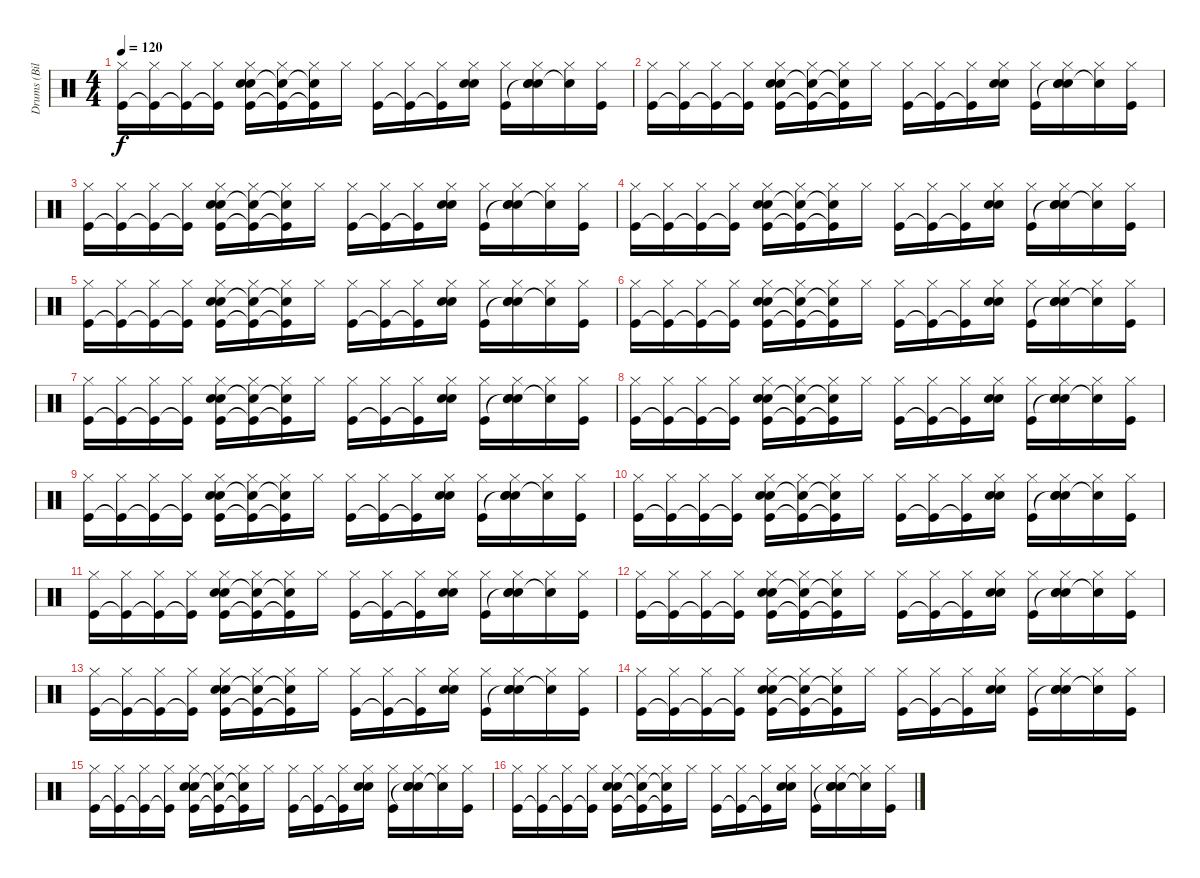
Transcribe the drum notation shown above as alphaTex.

\track ("Drums (Bilerman)" "Drums (Bil") {instrument percussion}
\staff {score}
\articulation defaults
\ts (4 4)
\tempo 120
\clef neutral
\ks c
("Kick (hit)" "Hi-Hat (closed)").16{dy f} ("Kick (hit)"{t} "Hi-Hat (closed)").16 ("Kick (hit)"{t} "Hi-Hat (closed)").16 ("Kick (hit)"{t} "Hi-Hat (closed)").16 ("Kick (hit)" "Snare (hit) 2" "Snare (hit) 2" "Hi-Hat (closed)").16 ("Kick (hit)"{t} "Snare (hit) 2"{t} "Hi-Hat (closed)").16 ("Kick (hit)"{t} "Snare (hit) 2"{t} "Hi-Hat (closed)").16 "Hi-Hat (closed)".16 ("Kick (hit)" "Hi-Hat (closed)").16 ("Kick (hit)"{t} "Hi-Hat (closed)").16 ("Kick (hit)"{t} "Hi-Hat (closed)").16 ("Snare (hit) 2" "Snare (hit) 2" "Hi-Hat (closed)").16 ("Kick (hit)" "Hi-Hat (closed)").16 ("Snare (hit)"{t} "Snare (hit) 2" "Snare (hit) 2" "Hi-Hat (closed)").16 ("Snare (hit) 2"{t} "Hi-Hat (closed)").16 ("Kick (hit)" "Hi-Hat (closed)").16 |
("Kick (hit)" "Hi-Hat (closed)").16 ("Kick (hit)"{t} "Hi-Hat (closed)").16 ("Kick (hit)"{t} "Hi-Hat (closed)").16 ("Kick (hit)"{t} "Hi-Hat (closed)").16 ("Kick (hit)" "Snare (hit) 2" "Snare (hit) 2" "Hi-Hat (closed)").16 ("Kick (hit)"{t} "Snare (hit) 2"{t} "Hi-Hat (closed)").16 ("Kick (hit)"{t} "Snare (hit) 2"{t} "Hi-Hat (closed)").16 "Hi-Hat (closed)".16 ("Kick (hit)" "Hi-Hat (closed)").16 ("Kick (hit)"{t} "Hi-Hat (closed)").16 ("Kick (hit)"{t} "Hi-Hat (closed)").16 ("Snare (hit) 2" "Snare (hit) 2" "Hi-Hat (closed)").16 ("Kick (hit)" "Hi-Hat (closed)").16 ("Snare (hit)"{t} "Snare (hit) 2" "Snare (hit) 2" "Hi-Hat (closed)").16 ("Snare (hit) 2"{t} "Hi-Hat (closed)").16 ("Kick (hit)" "Hi-Hat (closed)").16 |
("Kick (hit)" "Hi-Hat (closed)").16 ("Kick (hit)"{t} "Hi-Hat (closed)").16 ("Kick (hit)"{t} "Hi-Hat (closed)").16 ("Kick (hit)"{t} "Hi-Hat (closed)").16 ("Kick (hit)" "Snare (hit) 2" "Snare (hit) 2" "Hi-Hat (closed)").16 ("Kick (hit)"{t} "Snare (hit) 2"{t} "Hi-Hat (closed)").16 ("Kick (hit)"{t} "Snare (hit) 2"{t} "Hi-Hat (closed)").16 "Hi-Hat (closed)".16 ("Kick (hit)" "Hi-Hat (closed)").16 ("Kick (hit)"{t} "Hi-Hat (closed)").16 ("Kick (hit)"{t} "Hi-Hat (closed)").16 ("Snare (hit) 2" "Snare (hit) 2" "Hi-Hat (closed)").16 ("Kick (hit)" "Hi-Hat (closed)").16 ("Snare (hit)"{t} "Snare (hit) 2" "Snare (hit) 2" "Hi-Hat (closed)").16 ("Snare (hit) 2"{t} "Hi-Hat (closed)").16 ("Kick (hit)" "Hi-Hat (closed)").16 |
("Kick (hit)" "Hi-Hat (closed)").16 ("Kick (hit)"{t} "Hi-Hat (closed)").16 ("Kick (hit)"{t} "Hi-Hat (closed)").16 ("Kick (hit)"{t} "Hi-Hat (closed)").16 ("Kick (hit)" "Snare (hit) 2" "Snare (hit) 2" "Hi-Hat (closed)").16 ("Kick (hit)"{t} "Snare (hit) 2"{t} "Hi-Hat (closed)").16 ("Kick (hit)"{t} "Snare (hit) 2"{t} "Hi-Hat (closed)").16 "Hi-Hat (closed)".16 ("Kick (hit)" "Hi-Hat (closed)").16 ("Kick (hit)"{t} "Hi-Hat (closed)").16 ("Kick (hit)"{t} "Hi-Hat (closed)").16 ("Snare (hit) 2" "Snare (hit) 2" "Hi-Hat (closed)").16 ("Kick (hit)" "Hi-Hat (closed)").16 ("Snare (hit)"{t} "Snare (hit) 2" "Snare (hit) 2" "Hi-Hat (closed)").16 ("Snare (hit) 2"{t} "Hi-Hat (closed)").16 ("Kick (hit)" "Hi-Hat (closed)").16 |
("Kick (hit)" "Hi-Hat (closed)").16 ("Kick (hit)"{t} "Hi-Hat (closed)").16 ("Kick (hit)"{t} "Hi-Hat (closed)").16 ("Kick (hit)"{t} "Hi-Hat (closed)").16 ("Kick (hit)" "Snare (hit) 2" "Snare (hit) 2" "Hi-Hat (closed)").16 ("Kick (hit)"{t} "Snare (hit) 2"{t} "Hi-Hat (closed)").16 ("Kick (hit)"{t} "Snare (hit) 2"{t} "Hi-Hat (closed)").16 "Hi-Hat (closed)".16 ("Kick (hit)" "Hi-Hat (closed)").16 ("Kick (hit)"{t} "Hi-Hat (closed)").16 ("Kick (hit)"{t} "Hi-Hat (closed)").16 ("Snare (hit) 2" "Snare (hit) 2" "Hi-Hat (closed)").16 ("Kick (hit)" "Hi-Hat (closed)").16 ("Snare (hit)"{t} "Snare (hit) 2" "Snare (hit) 2" "Hi-Hat (closed)").16 ("Snare (hit) 2"{t} "Hi-Hat (closed)").16 ("Kick (hit)" "Hi-Hat (closed)").16 |
("Kick (hit)" "Hi-Hat (closed)").16 ("Kick (hit)"{t} "Hi-Hat (closed)").16 ("Kick (hit)"{t} "Hi-Hat (closed)").16 ("Kick (hit)"{t} "Hi-Hat (closed)").16 ("Kick (hit)" "Snare (hit) 2" "Snare (hit) 2" "Hi-Hat (closed)").16 ("Kick (hit)"{t} "Snare (hit) 2"{t} "Hi-Hat (closed)").16 ("Kick (hit)"{t} "Snare (hit) 2"{t} "Hi-Hat (closed)").16 "Hi-Hat (closed)".16 ("Kick (hit)" "Hi-Hat (closed)").16 ("Kick (hit)"{t} "Hi-Hat (closed)").16 ("Kick (hit)"{t} "Hi-Hat (closed)").16 ("Snare (hit) 2" "Snare (hit) 2" "Hi-Hat (closed)").16 ("Kick (hit)" "Hi-Hat (closed)").16 ("Snare (hit)"{t} "Snare (hit) 2" "Snare (hit) 2" "Hi-Hat (closed)").16 ("Snare (hit) 2"{t} "Hi-Hat (closed)").16 ("Kick (hit)" "Hi-Hat (closed)").16 |
("Kick (hit)" "Hi-Hat (closed)").16 ("Kick (hit)"{t} "Hi-Hat (closed)").16 ("Kick (hit)"{t} "Hi-Hat (closed)").16 ("Kick (hit)"{t} "Hi-Hat (closed)").16 ("Kick (hit)" "Snare (hit) 2" "Snare (hit) 2" "Hi-Hat (closed)").16 ("Kick (hit)"{t} "Snare (hit) 2"{t} "Hi-Hat (closed)").16 ("Kick (hit)"{t} "Snare (hit) 2"{t} "Hi-Hat (closed)").16 "Hi-Hat (closed)".16 ("Kick (hit)" "Hi-Hat (closed)").16 ("Kick (hit)"{t} "Hi-Hat (closed)").16 ("Kick (hit)"{t} "Hi-Hat (closed)").16 ("Snare (hit) 2" "Snare (hit) 2" "Hi-Hat (closed)").16 ("Kick (hit)" "Hi-Hat (closed)").16 ("Snare (hit)"{t} "Snare (hit) 2" "Snare (hit) 2" "Hi-Hat (closed)").16 ("Snare (hit) 2"{t} "Hi-Hat (closed)").16 ("Kick (hit)" "Hi-Hat (closed)").16 |
("Kick (hit)" "Hi-Hat (closed)").16 ("Kick (hit)"{t} "Hi-Hat (closed)").16 ("Kick (hit)"{t} "Hi-Hat (closed)").16 ("Kick (hit)"{t} "Hi-Hat (closed)").16 ("Kick (hit)" "Snare (hit) 2" "Snare (hit) 2" "Hi-Hat (closed)").16 ("Kick (hit)"{t} "Snare (hit) 2"{t} "Hi-Hat (closed)").16 ("Kick (hit)"{t} "Snare (hit) 2"{t} "Hi-Hat (closed)").16 "Hi-Hat (closed)".16 ("Kick (hit)" "Hi-Hat (closed)").16 ("Kick (hit)"{t} "Hi-Hat (closed)").16 ("Kick (hit)"{t} "Hi-Hat (closed)").16 ("Snare (hit) 2" "Snare (hit) 2" "Hi-Hat (closed)").16 ("Kick (hit)" "Hi-Hat (closed)").16 ("Snare (hit)"{t} "Snare (hit) 2" "Snare (hit) 2" "Hi-Hat (closed)").16 ("Snare (hit) 2"{t} "Hi-Hat (closed)").16 ("Kick (hit)" "Hi-Hat (closed)").16 |
("Kick (hit)" "Hi-Hat (closed)").16 ("Kick (hit)"{t} "Hi-Hat (closed)").16 ("Kick (hit)"{t} "Hi-Hat (closed)").16 ("Kick (hit)"{t} "Hi-Hat (closed)").16 ("Kick (hit)" "Snare (hit) 2" "Snare (hit) 2" "Hi-Hat (closed)").16 ("Kick (hit)"{t} "Snare (hit) 2"{t} "Hi-Hat (closed)").16 ("Kick (hit)"{t} "Snare (hit) 2"{t} "Hi-Hat (closed)").16 "Hi-Hat (closed)".16 ("Kick (hit)" "Hi-Hat (closed)").16 ("Kick (hit)"{t} "Hi-Hat (closed)").16 ("Kick (hit)"{t} "Hi-Hat (closed)").16 ("Snare (hit) 2" "Snare (hit) 2" "Hi-Hat (closed)").16 ("Kick (hit)" "Hi-Hat (closed)").16 ("Snare (hit)"{t} "Snare (hit) 2" "Snare (hit) 2" "Hi-Hat (closed)").16 ("Snare (hit) 2"{t} "Hi-Hat (closed)").16 ("Kick (hit)" "Hi-Hat (closed)").16 |
("Kick (hit)" "Hi-Hat (closed)").16 ("Kick (hit)"{t} "Hi-Hat (closed)").16 ("Kick (hit)"{t} "Hi-Hat (closed)").16 ("Kick (hit)"{t} "Hi-Hat (closed)").16 ("Kick (hit)" "Snare (hit) 2" "Snare (hit) 2" "Hi-Hat (closed)").16 ("Kick (hit)"{t} "Snare (hit) 2"{t} "Hi-Hat (closed)").16 ("Kick (hit)"{t} "Snare (hit) 2"{t} "Hi-Hat (closed)").16 "Hi-Hat (closed)".16 ("Kick (hit)" "Hi-Hat (closed)").16 ("Kick (hit)"{t} "Hi-Hat (closed)").16 ("Kick (hit)"{t} "Hi-Hat (closed)").16 ("Snare (hit) 2" "Snare (hit) 2" "Hi-Hat (closed)").16 ("Kick (hit)" "Hi-Hat (closed)").16 ("Snare (hit)"{t} "Snare (hit) 2" "Snare (hit) 2" "Hi-Hat (closed)").16 ("Snare (hit) 2"{t} "Hi-Hat (closed)").16 ("Kick (hit)" "Hi-Hat (closed)").16 |
("Kick (hit)" "Hi-Hat (closed)").16 ("Kick (hit)"{t} "Hi-Hat (closed)").16 ("Kick (hit)"{t} "Hi-Hat (closed)").16 ("Kick (hit)"{t} "Hi-Hat (closed)").16 ("Kick (hit)" "Snare (hit) 2" "Snare (hit) 2" "Hi-Hat (closed)").16 ("Kick (hit)"{t} "Snare (hit) 2"{t} "Hi-Hat (closed)").16 ("Kick (hit)"{t} "Snare (hit) 2"{t} "Hi-Hat (closed)").16 "Hi-Hat (closed)".16 ("Kick (hit)" "Hi-Hat (closed)").16 ("Kick (hit)"{t} "Hi-Hat (closed)").16 ("Kick (hit)"{t} "Hi-Hat (closed)").16 ("Snare (hit) 2" "Snare (hit) 2" "Hi-Hat (closed)").16 ("Kick (hit)" "Hi-Hat (closed)").16 ("Snare (hit)"{t} "Snare (hit) 2" "Snare (hit) 2" "Hi-Hat (closed)").16 ("Snare (hit) 2"{t} "Hi-Hat (closed)").16 ("Kick (hit)" "Hi-Hat (closed)").16 |
("Kick (hit)" "Hi-Hat (closed)").16 ("Kick (hit)"{t} "Hi-Hat (closed)").16 ("Kick (hit)"{t} "Hi-Hat (closed)").16 ("Kick (hit)"{t} "Hi-Hat (closed)").16 ("Kick (hit)" "Snare (hit) 2" "Snare (hit) 2" "Hi-Hat (closed)").16 ("Kick (hit)"{t} "Snare (hit) 2"{t} "Hi-Hat (closed)").16 ("Kick (hit)"{t} "Snare (hit) 2"{t} "Hi-Hat (closed)").16 "Hi-Hat (closed)".16 ("Kick (hit)" "Hi-Hat (closed)").16 ("Kick (hit)"{t} "Hi-Hat (closed)").16 ("Kick (hit)"{t} "Hi-Hat (closed)").16 ("Snare (hit) 2" "Snare (hit) 2" "Hi-Hat (closed)").16 ("Kick (hit)" "Hi-Hat (closed)").16 ("Snare (hit)"{t} "Snare (hit) 2" "Snare (hit) 2" "Hi-Hat (closed)").16 ("Snare (hit) 2"{t} "Hi-Hat (closed)").16 ("Kick (hit)" "Hi-Hat (closed)").16 |
("Kick (hit)" "Hi-Hat (closed)").16 ("Kick (hit)"{t} "Hi-Hat (closed)").16 ("Kick (hit)"{t} "Hi-Hat (closed)").16 ("Kick (hit)"{t} "Hi-Hat (closed)").16 ("Kick (hit)" "Snare (hit) 2" "Snare (hit) 2" "Hi-Hat (closed)").16 ("Kick (hit)"{t} "Snare (hit) 2"{t} "Hi-Hat (closed)").16 ("Kick (hit)"{t} "Snare (hit) 2"{t} "Hi-Hat (closed)").16 "Hi-Hat (closed)".16 ("Kick (hit)" "Hi-Hat (closed)").16 ("Kick (hit)"{t} "Hi-Hat (closed)").16 ("Kick (hit)"{t} "Hi-Hat (closed)").16 ("Snare (hit) 2" "Snare (hit) 2" "Hi-Hat (closed)").16 ("Kick (hit)" "Hi-Hat (closed)").16 ("Snare (hit)"{t} "Snare (hit) 2" "Snare (hit) 2" "Hi-Hat (closed)").16 ("Snare (hit) 2"{t} "Hi-Hat (closed)").16 ("Kick (hit)" "Hi-Hat (closed)").16 |
("Kick (hit)" "Hi-Hat (closed)").16 ("Kick (hit)"{t} "Hi-Hat (closed)").16 ("Kick (hit)"{t} "Hi-Hat (closed)").16 ("Kick (hit)"{t} "Hi-Hat (closed)").16 ("Kick (hit)" "Snare (hit) 2" "Snare (hit) 2" "Hi-Hat (closed)").16 ("Kick (hit)"{t} "Snare (hit) 2"{t} "Hi-Hat (closed)").16 ("Kick (hit)"{t} "Snare (hit) 2"{t} "Hi-Hat (closed)").16 "Hi-Hat (closed)".16 ("Kick (hit)" "Hi-Hat (closed)").16 ("Kick (hit)"{t} "Hi-Hat (closed)").16 ("Kick (hit)"{t} "Hi-Hat (closed)").16 ("Snare (hit) 2" "Snare (hit) 2" "Hi-Hat (closed)").16 ("Kick (hit)" "Hi-Hat (closed)").16 ("Snare (hit)"{t} "Snare (hit) 2" "Snare (hit) 2" "Hi-Hat (closed)").16 ("Snare (hit) 2"{t} "Hi-Hat (closed)").16 ("Kick (hit)" "Hi-Hat (closed)").16 |
("Kick (hit)" "Hi-Hat (closed)").16 ("Kick (hit)"{t} "Hi-Hat (closed)").16 ("Kick (hit)"{t} "Hi-Hat (closed)").16 ("Kick (hit)"{t} "Hi-Hat (closed)").16 ("Kick (hit)" "Snare (hit) 2" "Snare (hit) 2" "Hi-Hat (closed)").16 ("Kick (hit)"{t} "Snare (hit) 2"{t} "Hi-Hat (closed)").16 ("Kick (hit)"{t} "Snare (hit) 2"{t} "Hi-Hat (closed)").16 "Hi-Hat (closed)".16 ("Kick (hit)" "Hi-Hat (closed)").16 ("Kick (hit)"{t} "Hi-Hat (closed)").16 ("Kick (hit)"{t} "Hi-Hat (closed)").16 ("Snare (hit) 2" "Snare (hit) 2" "Hi-Hat (closed)").16 ("Kick (hit)" "Hi-Hat (closed)").16 ("Snare (hit)"{t} "Snare (hit) 2" "Snare (hit) 2" "Hi-Hat (closed)").16 ("Snare (hit) 2"{t} "Hi-Hat (closed)").16 ("Kick (hit)" "Hi-Hat (closed)").16 |
("Kick (hit)" "Hi-Hat (closed)").16 ("Kick (hit)"{t} "Hi-Hat (closed)").16 ("Kick (hit)"{t} "Hi-Hat (closed)").16 ("Kick (hit)"{t} "Hi-Hat (closed)").16 ("Kick (hit)" "Snare (hit) 2" "Snare (hit) 2" "Hi-Hat (closed)").16 ("Kick (hit)"{t} "Snare (hit) 2"{t} "Hi-Hat (closed)").16 ("Kick (hit)"{t} "Snare (hit) 2"{t} "Hi-Hat (closed)").16 "Hi-Hat (closed)".16 ("Kick (hit)" "Hi-Hat (closed)").16 ("Kick (hit)"{t} "Hi-Hat (closed)").16 ("Kick (hit)"{t} "Hi-Hat (closed)").16 ("Snare (hit) 2" "Snare (hit) 2" "Hi-Hat (closed)").16 ("Kick (hit)" "Hi-Hat (closed)").16 ("Snare (hit)"{t} "Snare (hit) 2" "Snare (hit) 2" "Hi-Hat (closed)").16 ("Snare (hit) 2"{t} "Hi-Hat (closed)").16 ("Kick (hit)" "Hi-Hat (closed)").16
